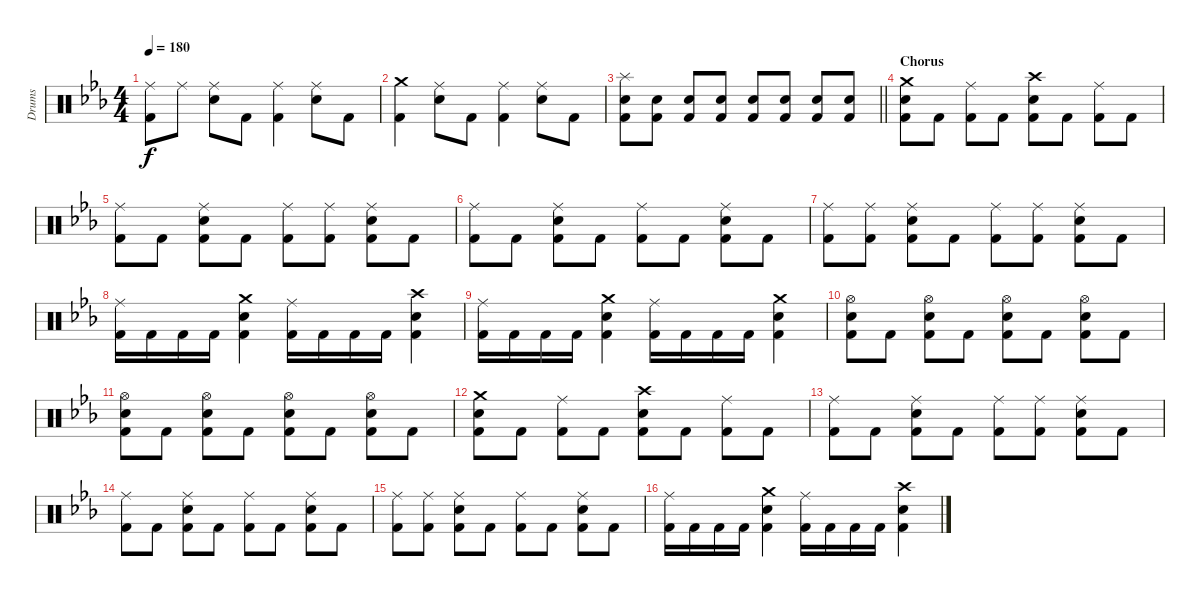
\track ("Drums" "Drums") {instrument percussion}
\staff {score}
\articulation defaults
\ts (4 4)
\tempo 180
\clef neutral
\ks eb
("Ride (middle)" "Kick (hit) 2").8{dy f} "Ride (middle)".8 ("Ride (middle)" "Snare (hit) 2").8 "Kick (hit) 2".8 ("Ride (middle)" "Kick (hit) 2").4 ("Ride (middle)" "Snare (hit) 2").8 "Kick (hit) 2".8 |
("Crash medium (hit)" "Kick (hit) 2").4 ("Ride (middle)" "Snare (hit) 2").8 "Kick (hit) 2".8 ("Ride (middle)" "Kick (hit) 2").4 ("Ride (middle)" "Snare (hit) 2").8 "Kick (hit) 2".8 |
\barLineRight lightlight
("Splash (hit)" "Snare (hit) 2" "Kick (hit) 2").8 ("Snare (hit) 2" "Kick (hit) 2").8 ("Snare (hit) 2" "Kick (hit) 2").8 ("Snare (hit) 2" "Kick (hit) 2").8 ("Snare (hit) 2" "Kick (hit) 2").8 ("Snare (hit) 2" "Kick (hit) 2").8 ("Snare (hit) 2" "Kick (hit) 2").8 ("Snare (hit) 2" "Kick (hit) 2").8 |
\section ("" "Chorus")
("Crash medium (hit)" "Snare (hit) 2" "Kick (hit) 2").8 "Kick (hit) 2".8 ("Ride (middle)" "Kick (hit) 2").8 "Kick (hit) 2".8 ("Crash high (hit)" "Snare (hit) 2" "Kick (hit) 2").8 "Kick (hit) 2".8 ("Ride (middle)" "Kick (hit) 2").8 "Kick (hit) 2".8 |
("Ride (middle)" "Kick (hit) 2").8 "Kick (hit) 2".8 ("Ride (middle)" "Snare (hit) 2" "Kick (hit) 2").8 "Kick (hit) 2".8 ("Ride (middle)" "Kick (hit) 2").8 ("Ride (middle)" "Kick (hit) 2").8 ("Ride (middle)" "Snare (hit) 2" "Kick (hit) 2").8 "Kick (hit) 2".8 |
("Ride (middle)" "Kick (hit) 2").8 "Kick (hit) 2".8 ("Ride (middle)" "Snare (hit) 2" "Kick (hit) 2").8 "Kick (hit) 2".8 ("Ride (middle)" "Kick (hit) 2").8 "Kick (hit) 2".8 ("Ride (middle)" "Snare (hit) 2" "Kick (hit) 2").8 "Kick (hit) 2".8 |
("Ride (middle)" "Kick (hit) 2").8 ("Ride (middle)" "Kick (hit) 2").8 ("Ride (middle)" "Snare (hit) 2" "Kick (hit) 2").8 "Kick (hit) 2".8 ("Ride (middle)" "Kick (hit) 2").8 ("Ride (middle)" "Kick (hit) 2").8 ("Ride (middle)" "Snare (hit) 2" "Kick (hit) 2").8 "Kick (hit) 2".8 |
("Ride (middle)" "Kick (hit) 2").16 "Kick (hit) 2".16 "Kick (hit) 2".16 "Kick (hit) 2".16 ("Crash medium (hit)" "Snare (hit) 2" "Kick (hit) 2").4 ("Ride (middle)" "Kick (hit) 2").16 "Kick (hit) 2".16 "Kick (hit) 2".16 "Kick (hit) 2".16 ("Crash high (hit)" "Snare (hit) 2" "Kick (hit) 2").4 |
("Ride (middle)" "Kick (hit) 2").16 "Kick (hit) 2".16 "Kick (hit) 2".16 "Kick (hit) 2".16 ("Crash medium (hit)" "Snare (hit) 2" "Kick (hit) 2").4 ("Ride (middle)" "Kick (hit) 2").16 "Kick (hit) 2".16 "Kick (hit) 2".16 "Kick (hit) 2".16 ("Crash medium (hit)" "Snare (hit) 2" "Kick (hit) 2").4 |
("Hi-Hat (open)" "Snare (hit) 2" "Kick (hit) 2").8 "Kick (hit) 2".8 ("Hi-Hat (open)" "Snare (hit) 2" "Kick (hit) 2").8 "Kick (hit) 2".8 ("Hi-Hat (open)" "Snare (hit) 2" "Kick (hit) 2").8 "Kick (hit) 2".8 ("Hi-Hat (open)" "Snare (hit) 2" "Kick (hit) 2").8 "Kick (hit) 2".8 |
("Hi-Hat (open)" "Snare (hit) 2" "Kick (hit) 2").8 "Kick (hit) 2".8 ("Hi-Hat (open)" "Snare (hit) 2" "Kick (hit) 2").8 "Kick (hit) 2".8 ("Hi-Hat (open)" "Snare (hit) 2" "Kick (hit) 2").8 "Kick (hit) 2".8 ("Hi-Hat (open)" "Snare (hit) 2" "Kick (hit) 2").8 "Kick (hit) 2".8 |
("Crash medium (hit)" "Snare (hit) 2" "Kick (hit) 2").8 "Kick (hit) 2".8 ("Ride (middle)" "Kick (hit) 2").8 "Kick (hit) 2".8 ("Crash high (hit)" "Snare (hit) 2" "Kick (hit) 2").8 "Kick (hit) 2".8 ("Ride (middle)" "Kick (hit) 2").8 "Kick (hit) 2".8 |
("Ride (middle)" "Kick (hit) 2").8 "Kick (hit) 2".8 ("Ride (middle)" "Snare (hit) 2" "Kick (hit) 2").8 "Kick (hit) 2".8 ("Ride (middle)" "Kick (hit) 2").8 ("Ride (middle)" "Kick (hit) 2").8 ("Ride (middle)" "Snare (hit) 2" "Kick (hit) 2").8 "Kick (hit) 2".8 |
("Ride (middle)" "Kick (hit) 2").8 "Kick (hit) 2".8 ("Ride (middle)" "Snare (hit) 2" "Kick (hit) 2").8 "Kick (hit) 2".8 ("Ride (middle)" "Kick (hit) 2").8 "Kick (hit) 2".8 ("Ride (middle)" "Snare (hit) 2" "Kick (hit) 2").8 "Kick (hit) 2".8 |
("Ride (middle)" "Kick (hit) 2").8 ("Ride (middle)" "Kick (hit) 2").8 ("Ride (middle)" "Snare (hit) 2" "Kick (hit) 2").8 "Kick (hit) 2".8 ("Ride (middle)" "Kick (hit) 2").8 "Kick (hit) 2".8 ("Ride (middle)" "Snare (hit) 2" "Kick (hit) 2").8 "Kick (hit) 2".8 |
("Ride (middle)" "Kick (hit) 2").16 "Kick (hit) 2".16 "Kick (hit) 2".16 "Kick (hit) 2".16 ("Crash medium (hit)" "Snare (hit) 2" "Kick (hit) 2").4 ("Ride (middle)" "Kick (hit) 2").16 "Kick (hit) 2".16 "Kick (hit) 2".16 "Kick (hit) 2".16 ("Crash high (hit)" "Snare (hit) 2" "Kick (hit) 2").4
